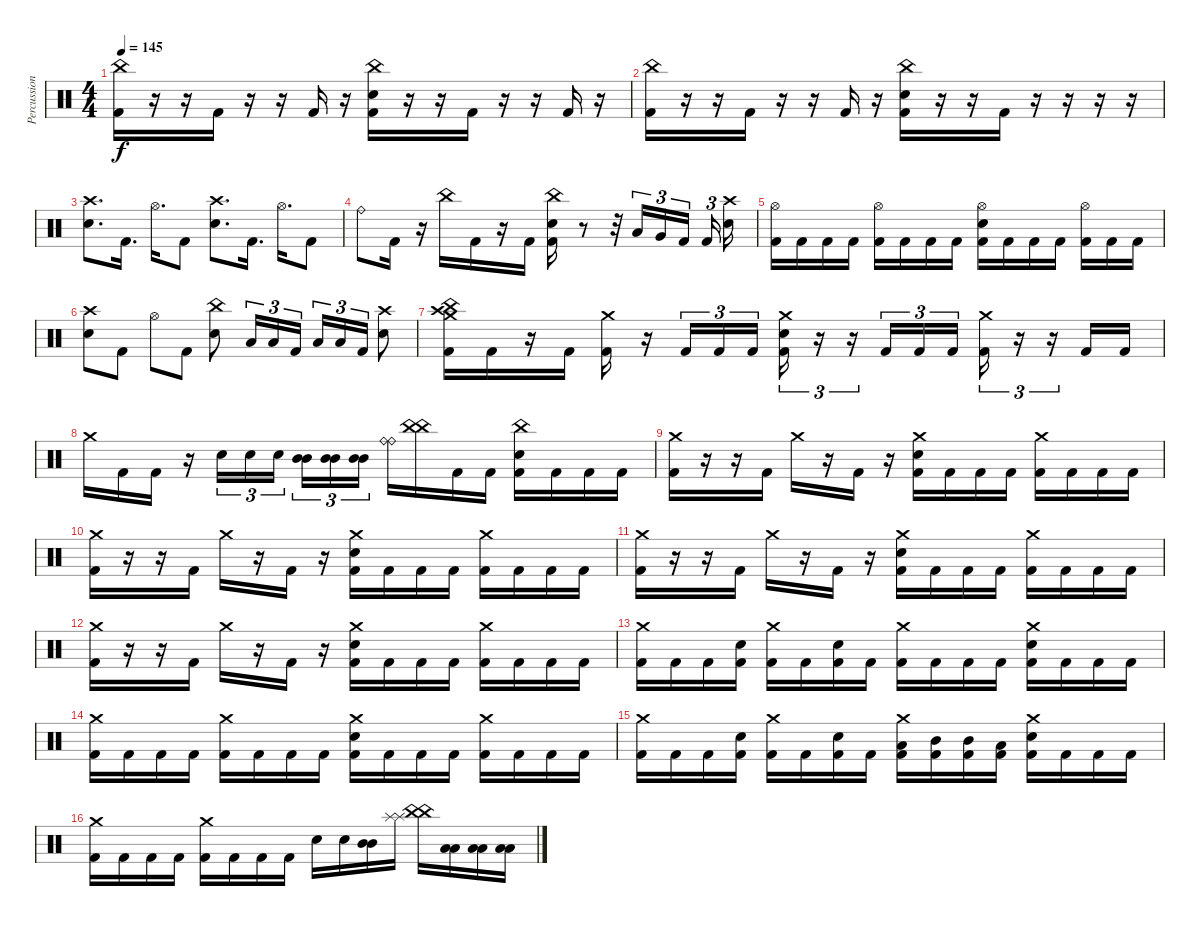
\track ("Percussion" "Percussion") {instrument percussion}
\staff {score}
\articulation defaults
\ts (4 4)
\tempo 145
\clef neutral
\ks c
("China (hit)" "Kick (hit) 2").16{dy f} r.16 r.16 "Kick (hit) 2".16 r.16 r.16 "Kick (hit) 2".16 r.16 ("China (hit)" "Electric Snare (hit)" "Kick (hit) 2").16 r.16 r.16 "Kick (hit) 2".16 r.16 r.16 "Kick (hit) 2".16 r.16 |
("China (hit)" "Kick (hit) 2").16 r.16 r.16 "Kick (hit) 2".16 r.16 r.16 "Kick (hit) 2".16 r.16 ("China (hit)" "Electric Snare (hit)" "Kick (hit) 2").16 r.16 r.16 "Kick (hit) 2".16 r.16 r.16 r.16 r.16 |
("Crash high (hit)" "Electric Snare (hit)").8{d} "Kick (hit) 2".16{d} "Hi-Hat (open)".16{d} "Kick (hit) 2".8 ("Crash high (hit)" "Electric Snare (hit)").8{d} "Kick (hit) 2".16{d} "Hi-Hat (open)".16{d} "Kick (hit) 2".8 |
"Ride (bell)".8 "Kick (hit) 2".16 r.16 "China (hit)".16 "Kick (hit) 2".16 r.16 "Kick (hit) 2".16 ("China (hit)" "Electric Snare (hit)" "Kick (hit) 2").16 r.8 r.32 "Low Tom (hit)".16{tu (3 2)} "Very Low Tom (hit)".16{tu (3 2)} "Kick (hit) 2".16{tu (3 2)} "Kick (hit) 2".16{tu (3 2)} ("Crash high (hit)" "Electric Snare (hit)").16 |
("Hi-Hat (open)" "Kick (hit) 2").16 "Kick (hit) 2".16 "Kick (hit) 2".16 "Kick (hit) 2".16 ("Hi-Hat (open)" "Kick (hit) 2").16 "Kick (hit) 2".16 "Kick (hit) 2".16 "Kick (hit) 2".16 ("Hi-Hat (open)" "Electric Snare (hit)" "Kick (hit) 2").16 "Kick (hit) 2".16 "Kick (hit) 2".16 "Kick (hit) 2".16 ("Hi-Hat (open)" "Kick (hit) 2").16 "Kick (hit) 2".16 "Kick (hit) 2".16 |
("Crash high (hit)" "Electric Snare (hit)").8 "Kick (hit) 2".8 "Hi-Hat (open)".8 "Kick (hit) 2".8 ("China (hit)" "Electric Snare (hit)").8 "Low Tom (hit)".16{tu (3 2)} "Low Tom (hit)".16{tu (3 2)} "Kick (hit) 2".16{tu (3 2)} "Low Floor Tom (hit)".16{tu (3 2)} "Low Floor Tom (hit)".16{tu (3 2)} "Kick (hit) 2".16{tu (3 2)} ("Crash high (hit)" "Electric Snare (hit)").8 |
("Crash medium (hit)" "Crash high (hit)" "China (hit)" "Kick (hit) 2").16 "Kick (hit) 2".16 r.16 "Kick (hit) 2".16 ("Crash medium (hit)" "Kick (hit) 2").16 r.16 "Kick (hit) 2".16{tu (3 2)} "Kick (hit) 2".16{tu (3 2)} "Kick (hit) 2".16{tu (3 2)} ("Crash medium (hit)" "Electric Snare (hit)" "Kick (hit) 2").16{tu (3 2)} r.16{tu (3 2)} r.16{tu (3 2)} "Kick (hit) 2".16{tu (3 2)} "Kick (hit) 2".16{tu (3 2)} "Kick (hit) 2".16{tu (3 2)} ("Crash medium (hit)" "Kick (hit) 2").16{tu (3 2)} r.16{tu (3 2)} r.16{tu (3 2)} "Kick (hit) 2".16 "Kick (hit) 2".16 |
"Crash medium (hit)".16 "Kick (hit) 2".16 "Kick (hit) 2".16 r.16 "Electric Snare (hit)".16{tu (3 2)} "Electric Snare (hit)".16{tu (3 2)} "Electric Snare (hit)".16{tu (3 2)} ("Mid Tom (hit)" "Mid Tom (hit)").16{tu (3 2)} ("Mid Tom (hit)" "Mid Tom (hit)").16{tu (3 2)} ("Mid Tom (hit)" "Mid Tom (hit)").16{tu (3 2)} ("Ride (bell)" "Ride (bell)").16 ("China (hit)" "China (hit)").16 "Kick (hit) 2".16 "Kick (hit) 2".16 ("China (hit)" "Electric Snare (hit)" "Kick (hit) 2").16 "Kick (hit) 2".16 "Kick (hit) 2".16 "Kick (hit) 2".16 |
("Crash medium (hit)" "Kick (hit) 2").16 r.16 r.16 "Kick (hit) 2".16 "Crash medium (hit)".16 r.16 "Kick (hit) 2".16 r.16 ("Crash medium (hit)" "Electric Snare (hit)" "Kick (hit) 2").16 "Kick (hit) 2".16 "Kick (hit) 2".16 "Kick (hit) 2".16 ("Crash medium (hit)" "Kick (hit) 2").16 "Kick (hit) 2".16 "Kick (hit) 2".16 "Kick (hit) 2".16 |
("Crash medium (hit)" "Kick (hit) 2").16 r.16 r.16 "Kick (hit) 2".16 "Crash medium (hit)".16 r.16 "Kick (hit) 2".16 r.16 ("Crash medium (hit)" "Electric Snare (hit)" "Kick (hit) 2").16 "Kick (hit) 2".16 "Kick (hit) 2".16 "Kick (hit) 2".16 ("Crash medium (hit)" "Kick (hit) 2").16 "Kick (hit) 2".16 "Kick (hit) 2".16 "Kick (hit) 2".16 |
("Crash medium (hit)" "Kick (hit) 2").16 r.16 r.16 "Kick (hit) 2".16 "Crash medium (hit)".16 r.16 "Kick (hit) 2".16 r.16 ("Crash medium (hit)" "Electric Snare (hit)" "Kick (hit) 2").16 "Kick (hit) 2".16 "Kick (hit) 2".16 "Kick (hit) 2".16 ("Crash medium (hit)" "Kick (hit) 2").16 "Kick (hit) 2".16 "Kick (hit) 2".16 "Kick (hit) 2".16 |
("Crash medium (hit)" "Kick (hit) 2").16 r.16 r.16 "Kick (hit) 2".16 "Crash medium (hit)".16 r.16 "Kick (hit) 2".16 r.16 ("Crash medium (hit)" "Electric Snare (hit)" "Kick (hit) 2").16 "Kick (hit) 2".16 "Kick (hit) 2".16 "Kick (hit) 2".16 ("Crash medium (hit)" "Kick (hit) 2").16 "Kick (hit) 2".16 "Kick (hit) 2".16 "Kick (hit) 2".16 |
("Crash medium (hit)" "Kick (hit) 2").16 "Kick (hit) 2".16 "Kick (hit) 2".16 ("Electric Snare (hit)" "Kick (hit) 2").16 ("Crash medium (hit)" "Kick (hit) 2").16 "Kick (hit) 2".16 ("Electric Snare (hit)" "Kick (hit) 2").16 "Kick (hit) 2".16 ("Crash medium (hit)" "Kick (hit) 2").16 "Kick (hit) 2".16 "Kick (hit) 2".16 "Kick (hit) 2".16 ("Crash medium (hit)" "Electric Snare (hit)" "Kick (hit) 2").16 "Kick (hit) 2".16 "Kick (hit) 2".16 "Kick (hit) 2".16 |
("Crash medium (hit)" "Kick (hit) 2").16 "Kick (hit) 2".16 "Kick (hit) 2".16 "Kick (hit) 2".16 ("Crash medium (hit)" "Kick (hit) 2").16 "Kick (hit) 2".16 "Kick (hit) 2".16 "Kick (hit) 2".16 ("Crash medium (hit)" "Electric Snare (hit)" "Kick (hit) 2").16 "Kick (hit) 2".16 "Kick (hit) 2".16 "Kick (hit) 2".16 ("Crash medium (hit)" "Kick (hit) 2").16 "Kick (hit) 2".16 "Kick (hit) 2".16 "Kick (hit) 2".16 |
("Crash medium (hit)" "Kick (hit) 2").16 "Kick (hit) 2".16 "Kick (hit) 2".16 ("Electric Snare (hit)" "Kick (hit) 2").16 ("Crash medium (hit)" "Kick (hit) 2").16 "Kick (hit) 2".16 ("Electric Snare (hit)" "Kick (hit) 2").16 "Kick (hit) 2".16 ("Crash medium (hit)" "Low Tom (hit)" "Kick (hit) 2").16 ("Mid Tom (hit)" "Kick (hit) 2").16 ("Mid Tom (hit)" "Kick (hit) 2").16 ("Low Tom (hit)" "Kick (hit) 2").16 ("Crash medium (hit)" "Electric Snare (hit)" "Kick (hit) 2").16 "Kick (hit) 2".16 "Kick (hit) 2".16 "Kick (hit) 2".16 |
("Crash medium (hit)" "Kick (hit) 2").16 "Kick (hit) 2".16 "Kick (hit) 2".16 "Kick (hit) 2".16 ("Crash medium (hit)" "Kick (hit) 2").16 "Kick (hit) 2".16 "Kick (hit) 2".16 "Kick (hit) 2".16 "Electric Snare (hit)".16 "Electric Snare (hit)".16 ("Mid Tom (hit)" "Mid Tom (hit)").16 ("Splash (hit)" "Splash (hit)").16 ("China (hit)" "China (hit)").16 ("Low Tom (hit)" "Low Tom (hit)").16 ("Low Tom (hit)" "Low Tom (hit)").16 ("Low Tom (hit)" "Low Tom (hit)").16
